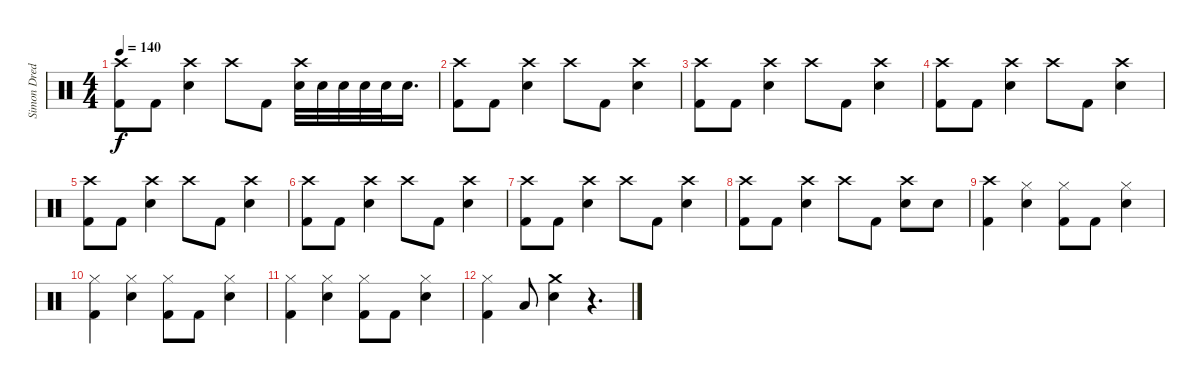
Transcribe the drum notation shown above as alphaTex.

\track ("Simon Dredo" "Simon Dred") {instrument percussion}
\staff {score}
\articulation defaults
\ts (4 4)
\tempo 140
\clef neutral
\ks c
("Crash high (hit)" "Kick (hit) 2").8{dy f} "Kick (hit) 2".8 ("Crash high (hit)" "Electric Snare (hit)").4 "Crash high (hit)".8 "Kick (hit) 2".8 ("Crash high (hit)" "Electric Snare (hit)").32 "Electric Snare (hit)".32 "Electric Snare (hit)".32 "Electric Snare (hit)".32 "Electric Snare (hit)".32 "Electric Snare (hit)".16{d} |
("Crash high (hit)" "Kick (hit) 2").8 "Kick (hit) 2".8 ("Crash high (hit)" "Electric Snare (hit)").4 "Crash high (hit)".8 "Kick (hit) 2".8 ("Crash high (hit)" "Electric Snare (hit)").4 |
("Crash high (hit)" "Kick (hit) 2").8 "Kick (hit) 2".8 ("Crash high (hit)" "Electric Snare (hit)").4 "Crash high (hit)".8 "Kick (hit) 2".8 ("Crash high (hit)" "Electric Snare (hit)").4 |
("Crash high (hit)" "Kick (hit) 2").8 "Kick (hit) 2".8 ("Crash high (hit)" "Electric Snare (hit)").4 "Crash high (hit)".8 "Kick (hit) 2".8 ("Crash high (hit)" "Electric Snare (hit)").4 |
("Crash high (hit)" "Kick (hit) 2").8 "Kick (hit) 2".8 ("Crash high (hit)" "Electric Snare (hit)").4 "Crash high (hit)".8 "Kick (hit) 2".8 ("Crash high (hit)" "Electric Snare (hit)").4 |
("Crash high (hit)" "Kick (hit) 2").8 "Kick (hit) 2".8 ("Crash high (hit)" "Electric Snare (hit)").4 "Crash high (hit)".8 "Kick (hit) 2".8 ("Crash high (hit)" "Electric Snare (hit)").4 |
("Crash high (hit)" "Kick (hit) 2").8 "Kick (hit) 2".8 ("Crash high (hit)" "Electric Snare (hit)").4 "Crash high (hit)".8 "Kick (hit) 2".8 ("Crash high (hit)" "Electric Snare (hit)").4 |
("Crash high (hit)" "Kick (hit) 2").8 "Kick (hit) 2".8 ("Crash high (hit)" "Electric Snare (hit)").4 "Crash high (hit)".8 "Kick (hit) 2".8 ("Crash high (hit)" "Electric Snare (hit)").8 "Electric Snare (hit)".8 |
("Crash high (hit)" "Kick (hit) 2").4 ("Hi-Hat (closed)" "Electric Snare (hit)").4 ("Hi-Hat (closed)" "Kick (hit) 2").8 "Kick (hit) 2".8 ("Hi-Hat (closed)" "Electric Snare (hit)").4 |
("Hi-Hat (closed)" "Kick (hit) 2").4 ("Hi-Hat (closed)" "Electric Snare (hit)").4 ("Hi-Hat (closed)" "Kick (hit) 2").8 "Kick (hit) 2".8 ("Hi-Hat (closed)" "Electric Snare (hit)").4 |
("Hi-Hat (closed)" "Kick (hit) 2").4 ("Hi-Hat (closed)" "Electric Snare (hit)").4 ("Hi-Hat (closed)" "Kick (hit) 2").8 "Kick (hit) 2".8 ("Hi-Hat (closed)" "Electric Snare (hit)").4 |
("Hi-Hat (closed)" "Kick (hit) 2").4 "Low Tom (hit)".8 ("Crash medium (hit)" "Electric Snare (hit)").4 r.4{d}
